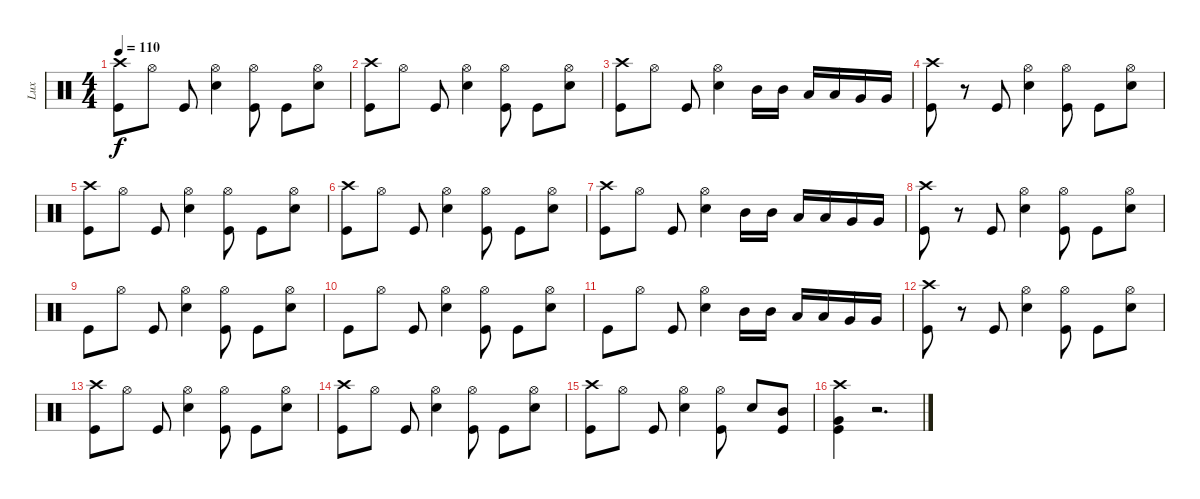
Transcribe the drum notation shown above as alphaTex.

\track ("Lux" "Lux") {instrument percussion}
\staff {score}
\articulation defaults
\ts (4 4)
\tempo 110
\clef neutral
\ks c
("Crash high (hit)" "Kick (hit)").8{dy f} "Hi-Hat (open)".8 "Kick (hit)".8 ("Hi-Hat (open)" "Snare (hit) 2").4 ("Hi-Hat (open)" "Kick (hit)").8 "Kick (hit)".8 ("Hi-Hat (open)" "Snare (hit) 2").8 |
("Crash high (hit)" "Kick (hit)").8 "Hi-Hat (open)".8 "Kick (hit)".8 ("Hi-Hat (open)" "Snare (hit) 2").4 ("Hi-Hat (open)" "Kick (hit)").8 "Kick (hit)".8 ("Hi-Hat (open)" "Snare (hit) 2").8 |
("Crash high (hit)" "Kick (hit)").8 "Hi-Hat (open)".8 "Kick (hit)".8 ("Hi-Hat (open)" "Snare (hit) 2").4 "Mid Tom (hit)".16 "Mid Tom (hit)".16 "Low Tom (hit)".16 "Low Tom (hit)".16 "Very Low Tom (hit)".16 "Very Low Tom (hit)".16 |
("Crash high (hit)" "Kick (hit)").8 r.8 "Kick (hit)".8 ("Hi-Hat (open)" "Snare (hit) 2").4 ("Hi-Hat (open)" "Kick (hit)").8 "Kick (hit)".8 ("Hi-Hat (open)" "Snare (hit) 2").8 |
("Crash high (hit)" "Kick (hit)").8 "Hi-Hat (open)".8 "Kick (hit)".8 ("Hi-Hat (open)" "Snare (hit) 2").4 ("Hi-Hat (open)" "Kick (hit)").8 "Kick (hit)".8 ("Hi-Hat (open)" "Snare (hit) 2").8 |
("Crash high (hit)" "Kick (hit)").8 "Hi-Hat (open)".8 "Kick (hit)".8 ("Hi-Hat (open)" "Snare (hit) 2").4 ("Hi-Hat (open)" "Kick (hit)").8 "Kick (hit)".8 ("Hi-Hat (open)" "Snare (hit) 2").8 |
("Crash high (hit)" "Kick (hit)").8 "Hi-Hat (open)".8 "Kick (hit)".8 ("Hi-Hat (open)" "Snare (hit) 2").4 "Mid Tom (hit)".16 "Mid Tom (hit)".16 "Low Tom (hit)".16 "Low Tom (hit)".16 "Very Low Tom (hit)".16 "Very Low Tom (hit)".16 |
("Crash high (hit)" "Kick (hit)").8 r.8 "Kick (hit)".8 ("Hi-Hat (open)" "Snare (hit) 2").4 ("Hi-Hat (open)" "Kick (hit)").8 "Kick (hit)".8 ("Hi-Hat (open)" "Snare (hit) 2").8 |
"Kick (hit)".8 "Hi-Hat (open)".8 "Kick (hit)".8 ("Hi-Hat (open)" "Snare (hit) 2").4 ("Hi-Hat (open)" "Kick (hit)").8 "Kick (hit)".8 ("Hi-Hat (open)" "Snare (hit) 2").8 |
"Kick (hit)".8 "Hi-Hat (open)".8 "Kick (hit)".8 ("Hi-Hat (open)" "Snare (hit) 2").4 ("Hi-Hat (open)" "Kick (hit)").8 "Kick (hit)".8 ("Hi-Hat (open)" "Snare (hit) 2").8 |
"Kick (hit)".8 "Hi-Hat (open)".8 "Kick (hit)".8 ("Hi-Hat (open)" "Snare (hit) 2").4 "Mid Tom (hit)".16 "Mid Tom (hit)".16 "Low Tom (hit)".16 "Low Tom (hit)".16 "Very Low Tom (hit)".16 "Very Low Tom (hit)".16 |
("Crash high (hit)" "Kick (hit)").8 r.8 "Kick (hit)".8 ("Hi-Hat (open)" "Snare (hit) 2").4 ("Hi-Hat (open)" "Kick (hit)").8 "Kick (hit)".8 ("Hi-Hat (open)" "Snare (hit) 2").8 |
("Crash high (hit)" "Kick (hit)").8 "Hi-Hat (open)".8 "Kick (hit)".8 ("Hi-Hat (open)" "Snare (hit) 2").4 ("Hi-Hat (open)" "Kick (hit)").8 "Kick (hit)".8 ("Hi-Hat (open)" "Snare (hit) 2").8 |
("Crash high (hit)" "Kick (hit)").8 "Hi-Hat (open)".8 "Kick (hit)".8 ("Hi-Hat (open)" "Snare (hit) 2").4 ("Hi-Hat (open)" "Kick (hit)").8 "Kick (hit)".8 ("Hi-Hat (open)" "Snare (hit) 2").8 |
("Crash high (hit)" "Kick (hit)").8 "Hi-Hat (open)".8 "Kick (hit)".8 ("Hi-Hat (open)" "Snare (hit) 2").4 ("Hi-Hat (open)" "Kick (hit)").8 "Snare (hit) 2".8 ("Mid Tom (hit)" "Kick (hit)").8 |
("Crash high (hit)" "Very Low Tom (hit)" "Kick (hit)").4 r.2{d}
